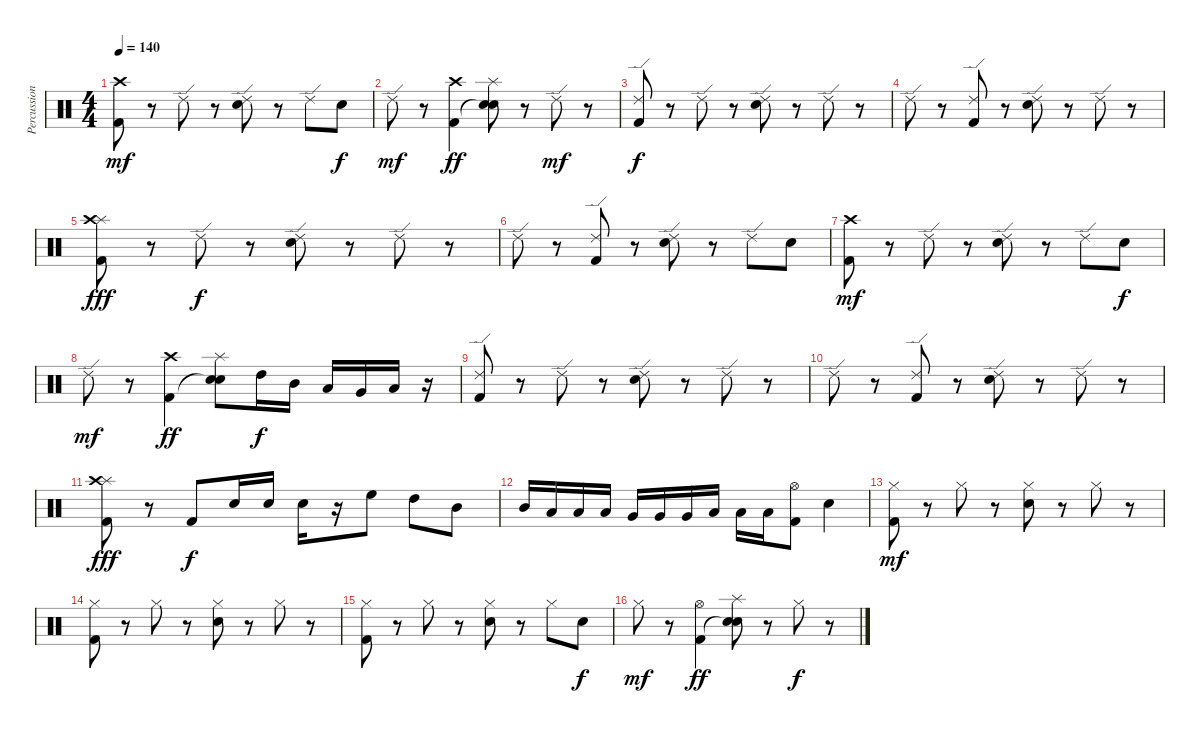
\track ("Percussion" "Percussion") {instrument percussion}
\staff {score}
\articulation defaults
\ts (4 4)
\tempo 140
\clef neutral
\ks c
("Crash high (hit)" "Kick (hit) 2").8{dy mf} r.8 "Ride (edge) 2".8 r.8 ("Ride (edge) 2" "Electric Snare (hit)").8 r.8 "Ride (edge) 2".8 "Electric Snare (hit)".8{dy f} |
"Ride (edge) 2".8{dy mf} r.8 ("Crash high (hit)" "Kick (hit) 2").4{dy ff} ("Splash (hit)" "Electric Snare (hit)"{t} "Electric Snare (hit)").8 r.8 "Ride (edge) 2".8{dy mf} r.8 |
("Ride (edge) 2" "Kick (hit) 2").8{dy f} r.8 "Ride (edge) 2".8 r.8 ("Ride (edge) 2" "Electric Snare (hit)").8 r.8 "Ride (edge) 2".8 r.8 |
"Ride (edge) 2".8 r.8 ("Ride (edge) 2" "Kick (hit) 2").8 r.8 ("Ride (edge) 2" "Electric Snare (hit)").8 r.8 "Ride (edge) 2".8 r.8 |
("Splash (hit)" "Crash high (hit)" "Kick (hit) 2").8{dy fff} r.8 "Ride (edge) 2".8{dy f} r.8 ("Ride (edge) 2" "Electric Snare (hit)").8 r.8 "Ride (edge) 2".8 r.8 |
"Ride (edge) 2".8 r.8 ("Ride (edge) 2" "Kick (hit) 2").8 r.8 ("Ride (edge) 2" "Electric Snare (hit)").8 r.8 "Ride (edge) 2".8 "Electric Snare (hit)".8 |
("Crash high (hit)" "Kick (hit) 2").8{dy mf} r.8 "Ride (edge) 2".8 r.8 ("Ride (edge) 2" "Electric Snare (hit)").8 r.8 "Ride (edge) 2".8 "Electric Snare (hit)".8{dy f} |
"Ride (edge) 2".8{dy mf} r.8 ("Crash high (hit)" "Kick (hit) 2").4{dy ff} ("Splash (hit)" "Electric Snare (hit)"{t} "Electric Snare (hit)").8 "High Tom (hit)".16{dy f} "Mid Tom (hit)".16 "Low Tom (hit)".16 "Very Low Tom (hit)".16 "Low Floor Tom (hit)".16 r.16 |
("Ride (edge) 2" "Kick (hit) 2").8 r.8 "Ride (edge) 2".8 r.8 ("Ride (edge) 2" "Electric Snare (hit)").8 r.8 "Ride (edge) 2".8 r.8 |
"Ride (edge) 2".8 r.8 ("Ride (edge) 2" "Kick (hit) 2").8 r.8 ("Ride (edge) 2" "Electric Snare (hit)").8 r.8 "Ride (edge) 2".8 r.8 |
("Splash (hit)" "Crash high (hit)" "Kick (hit) 2").8{dy fff} r.8 "Kick (hit) 2".8{dy f} "Electric Snare (hit)".16 "Electric Snare (hit)".16 "Electric Snare (hit)".16 r.16 "High Floor Tom (hit)".8 "High Tom (hit)".8 "Mid Tom (hit)".8 |
"Mid Tom (hit)".16 "Low Tom (hit)".16 "Low Tom (hit)".16 "Low Tom (hit)".16 "Very Low Tom (hit)".16 "Very Low Tom (hit)".16 "Very Low Tom (hit)".16 "Low Floor Tom (hit)".16 "Low Floor Tom (hit)".16 "Low Floor Tom (hit)".16 ("Hi-Hat (open)" "Kick (hit) 2").8 "Electric Snare (hit)".4 |
("Hi-Hat (closed)" "Kick (hit) 2").8{dy mf} r.8 "Hi-Hat (closed)".8 r.8 ("Hi-Hat (closed)" "Electric Snare (hit)").8 r.8 "Hi-Hat (closed)".8 r.8 |
("Hi-Hat (closed)" "Kick (hit) 2").8 r.8 "Hi-Hat (closed)".8 r.8 ("Hi-Hat (closed)" "Electric Snare (hit)").8 r.8 "Hi-Hat (closed)".8 r.8 |
("Hi-Hat (closed)" "Kick (hit) 2").8 r.8 "Hi-Hat (closed)".8 r.8 ("Hi-Hat (closed)" "Electric Snare (hit)").8 r.8 "Hi-Hat (closed)".8 "Electric Snare (hit)".8{dy f} |
"Hi-Hat (closed)".8{dy mf} r.8 ("Hi-Hat (open)" "Kick (hit) 2").4{dy ff} ("Splash (hit)" "Electric Snare (hit)"{t} "Electric Snare (hit)").8 r.8 "Hi-Hat (closed)".8{dy f} r.8
